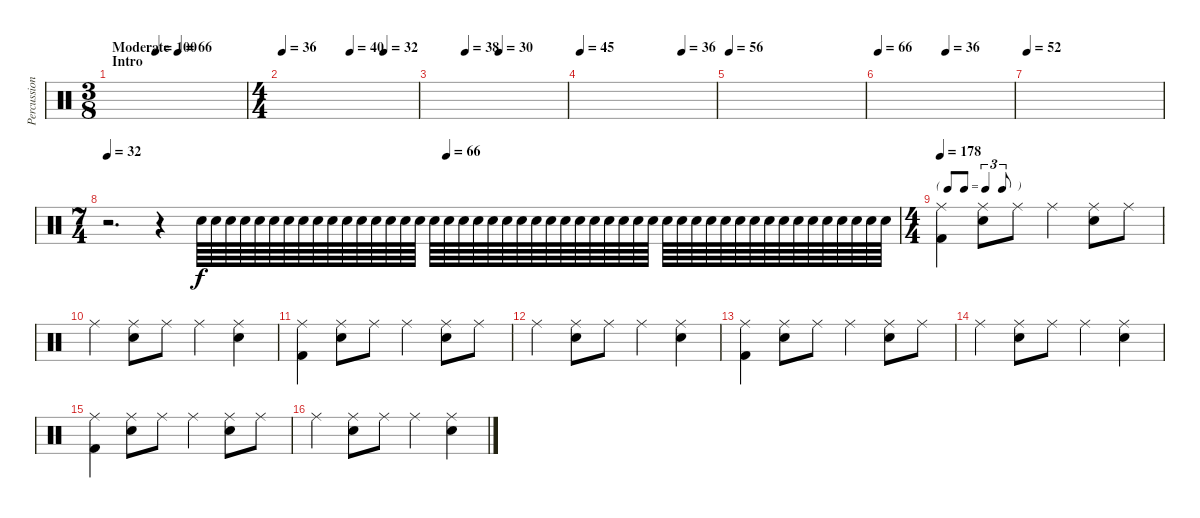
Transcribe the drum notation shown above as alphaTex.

\track ("Percussion" "Percussion") {instrument percussion}
\staff {score}
\articulation defaults
\ts (3 8)
\section ("" "Intro")
\tempo (66 "Moderate")
\tempo (100 0.3333333333333333)
\tempo (66 "Moderate")
\clef neutral
\ks c
|
\ts (4 4)
\tempo 36
\tempo (40 0.5)
\tempo (32 0.75)
|
\tempo (38 0.25)
\tempo (30 0.5)
|
\tempo 45
\tempo (36 0.75)
|
\tempo 56
|
\tempo 66
\tempo (36 0.5)
|
\tempo 52
|
\ts (7 4)
\tempo 32
\tempo (66 0.42857142857142855)
r.2{d} r.4 "Snare (hit) 2".64 "Snare (hit) 2".64 "Snare (hit) 2".64 "Snare (hit) 2".64 "Snare (hit) 2".64 "Snare (hit) 2".64 "Snare (hit) 2".64 "Snare (hit) 2".64 "Snare (hit) 2".64 "Snare (hit) 2".64 "Snare (hit) 2".64 "Snare (hit) 2".64 "Snare (hit) 2".64 "Snare (hit) 2".64 "Snare (hit) 2".64 "Snare (hit) 2".64 "Snare (hit) 2".64 "Snare (hit) 2".64 "Snare (hit) 2".64 "Snare (hit) 2".64 "Snare (hit) 2".64 "Snare (hit) 2".64 "Snare (hit) 2".64 "Snare (hit) 2".64 "Snare (hit) 2".64 "Snare (hit) 2".64 "Snare (hit) 2".64 "Snare (hit) 2".64 "Snare (hit) 2".64 "Snare (hit) 2".64 "Snare (hit) 2".64 "Snare (hit) 2".64 "Snare (hit) 2".64 "Snare (hit) 2".64 "Snare (hit) 2".64 "Snare (hit) 2".64 "Snare (hit) 2".64 "Snare (hit) 2".64 "Snare (hit) 2".64 "Snare (hit) 2".64 "Snare (hit) 2".64 "Snare (hit) 2".64 "Snare (hit) 2".64 "Snare (hit) 2".64 "Snare (hit) 2".64 "Snare (hit) 2".64 "Snare (hit) 2".64 "Snare (hit) 2".64 |
\ts (4 4)
\tf triplet8th
\tempo 178
("Ride (middle)" "Kick (hit) 2").4{dy f} ("Ride (middle)" "Snare (hit) 2").8 "Ride (middle)".8 "Ride (middle)".4 ("Ride (middle)" "Snare (hit) 2").8 "Ride (middle)".8 |
"Ride (middle)".4 ("Ride (middle)" "Snare (hit) 2").8 "Ride (middle)".8 "Ride (middle)".4 ("Ride (middle)" "Snare (hit) 2").4 |
("Ride (middle)" "Kick (hit) 2").4 ("Ride (middle)" "Snare (hit) 2").8 "Ride (middle)".8 "Ride (middle)".4 ("Ride (middle)" "Snare (hit) 2").8 "Ride (middle)".8 |
"Ride (middle)".4 ("Ride (middle)" "Snare (hit) 2").8 "Ride (middle)".8 "Ride (middle)".4 ("Ride (middle)" "Snare (hit) 2").4 |
("Ride (middle)" "Kick (hit) 2").4 ("Ride (middle)" "Snare (hit) 2").8 "Ride (middle)".8 "Ride (middle)".4 ("Ride (middle)" "Snare (hit) 2").8 "Ride (middle)".8 |
"Ride (middle)".4 ("Ride (middle)" "Snare (hit) 2").8 "Ride (middle)".8 "Ride (middle)".4 ("Ride (middle)" "Snare (hit) 2").4 |
("Ride (middle)" "Kick (hit) 2").4 ("Ride (middle)" "Snare (hit) 2").8 "Ride (middle)".8 "Ride (middle)".4 ("Ride (middle)" "Snare (hit) 2").8 "Ride (middle)".8 |
"Ride (middle)".4 ("Ride (middle)" "Snare (hit) 2").8 "Ride (middle)".8 "Ride (middle)".4 ("Ride (middle)" "Snare (hit) 2").4
